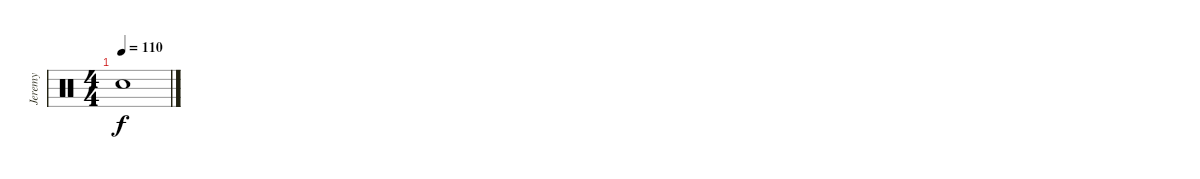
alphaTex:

\track ("Jeremy" "Jeremy") {instrument percussion}
\staff {score}
\articulation defaults
\ts (4 4)
\tempo 110
\clef neutral
\ks c "Snare (hit)"{t}.1{dy f}
